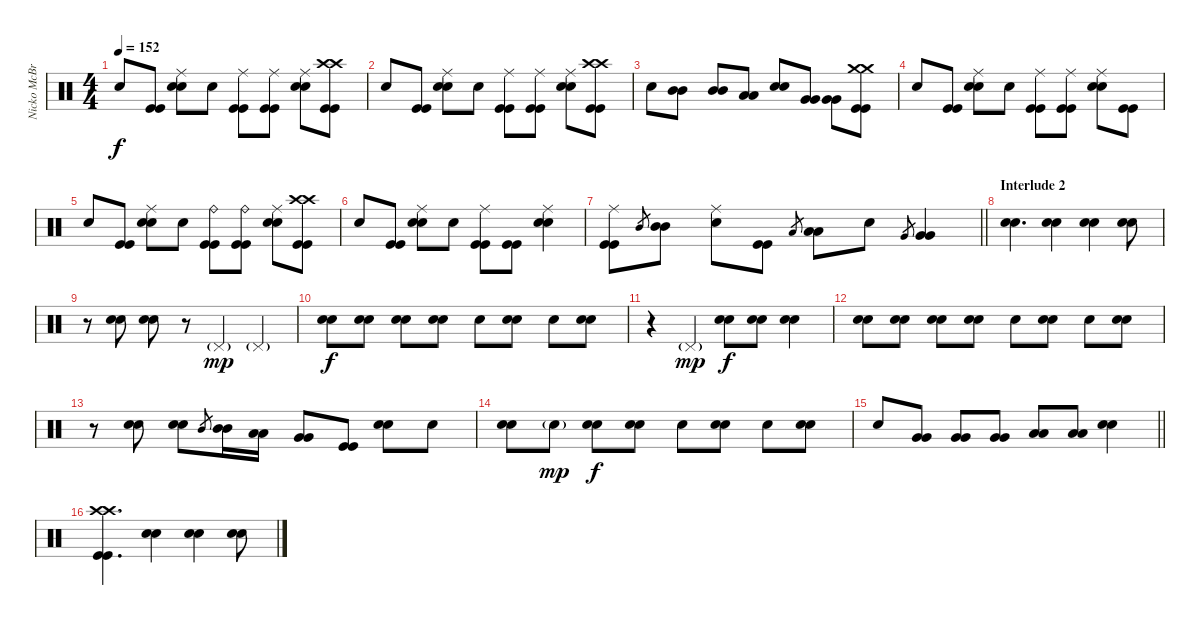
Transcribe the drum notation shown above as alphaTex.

\track ("Nicko McBrain" "Nicko McBr") {instrument percussion}
\staff {score}
\articulation defaults
\ts (4 4)
\tempo 152
\clef neutral
\ks c "Snare (hit)".8{dy f}
("Kick (hit)" "Kick (hit)").8 ("Ride (middle)" "Electric Snare (hit)" "Electric Snare (hit)").8 "Snare (hit)".8 ("Ride (middle)" "Kick (hit)" "Kick (hit)").8 ("Ride (middle)" "Kick (hit)" "Kick (hit)").8 ("Ride (middle)" "Electric Snare (hit)" "Electric Snare (hit)").8 ("Crash high (hit)" "Crash high (hit)" "Kick (hit)" "Kick (hit)").8 |
"Snare (hit)".8 ("Kick (hit)" "Kick (hit)").8 ("Ride (middle)" "Electric Snare (hit)" "Electric Snare (hit)").8 "Snare (hit)".8 ("Ride (middle)" "Kick (hit)" "Kick (hit)").8 ("Ride (middle)" "Kick (hit)" "Kick (hit)").8 ("Ride (middle)" "Electric Snare (hit)" "Electric Snare (hit)").8 ("Crash high (hit)" "Crash high (hit)" "Kick (hit)" "Kick (hit)").8 |
"Snare (hit)".8 ("Mid Tom (hit)" "Mid Tom (hit)").8 ("Mid Tom (hit)" "Mid Tom (hit)").8 ("Low Tom (hit)" "Low Tom (hit)").8 ("Electric Snare (hit)" "Electric Snare (hit)").8 ("Very Low Tom (hit)" "Very Low Tom (hit)").8 ("Very Low Tom (hit)" "Very Low Tom (hit)").8 ("Crash medium (hit)" "Crash medium (hit)" "Kick (hit)" "Kick (hit)").8 |
"Snare (hit)".8 ("Kick (hit)" "Kick (hit)").8 ("Ride (middle)" "Electric Snare (hit)" "Electric Snare (hit)").8 "Snare (hit)".8 ("Ride (middle)" "Kick (hit)" "Kick (hit)").8 ("Ride (middle)" "Kick (hit)" "Kick (hit)").8 ("Ride (middle)" "Electric Snare (hit)" "Electric Snare (hit)").8 ("Kick (hit)" "Kick (hit)").8 |
"Snare (hit)".8 ("Kick (hit)" "Kick (hit)").8 ("Ride (middle)" "Electric Snare (hit)" "Electric Snare (hit)").8 "Snare (hit)".8 ("Ride (bell)" "Kick (hit)" "Kick (hit)").8 ("Ride (bell)" "Kick (hit)" "Kick (hit)").8 ("Ride (middle)" "Electric Snare (hit)" "Electric Snare (hit)").8 ("Crash high (hit)" "Crash high (hit)" "Kick (hit)" "Kick (hit)").8 |
"Snare (hit)".8 ("Kick (hit)" "Kick (hit)").8 ("Ride (middle)" "Electric Snare (hit)" "Electric Snare (hit)").8 "Snare (hit)".8 ("Ride (middle)" "Kick (hit)" "Kick (hit)").8 ("Kick (hit)" "Kick (hit)").8 ("Ride (middle)" "Electric Snare (hit)" "Electric Snare (hit)").4 |
\barLineRight lightlight
("Ride (middle)" "Kick (hit)" "Kick (hit)").8 "Mid Tom (hit)".8{gr} ("Mid Tom (hit)" "Mid Tom (hit)").8 ("Ride (middle)" "Snare (hit)").8 ("Kick (hit)" "Kick (hit)").8 "Low Tom (hit)".8{gr} ("Low Tom (hit)" "Low Tom (hit)").8 "Snare (hit)".8 "Very Low Tom (hit)".8{gr} ("Very Low Tom (hit)" "Very Low Tom (hit)").4 |
\section ("" "Interlude 2")
("Electric Snare (hit)" "Electric Snare (hit)").4{d} ("Electric Snare (hit)" "Electric Snare (hit)").4 ("Electric Snare (hit)" "Electric Snare (hit)").4 ("Electric Snare (hit)" "Electric Snare (hit)").8 |
r.8 ("Electric Snare (hit)" "Electric Snare (hit)").8 ("Electric Snare (hit)" "Electric Snare (hit)").8 r.8 "Pedal Hi-Hat (hit)"{g}.4{dy mp} "Pedal Hi-Hat (hit)"{g}.4 |
("Electric Snare (hit)" "Electric Snare (hit)").8{dy f} ("Electric Snare (hit)" "Electric Snare (hit)").8 ("Electric Snare (hit)" "Electric Snare (hit)").8 ("Electric Snare (hit)" "Electric Snare (hit)").8 "Snare (hit)".8 ("Electric Snare (hit)" "Electric Snare (hit)").8 "Snare (hit)".8 ("Electric Snare (hit)" "Electric Snare (hit)").8 |
r.4 "Pedal Hi-Hat (hit)"{g}.4{dy mp} ("Electric Snare (hit)" "Electric Snare (hit)").8{dy f} ("Electric Snare (hit)" "Electric Snare (hit)").8 ("Electric Snare (hit)" "Electric Snare (hit)").4 |
("Electric Snare (hit)" "Electric Snare (hit)").8 ("Electric Snare (hit)" "Electric Snare (hit)").8 ("Electric Snare (hit)" "Electric Snare (hit)").8 ("Electric Snare (hit)" "Electric Snare (hit)").8 "Snare (hit)".8 ("Electric Snare (hit)" "Electric Snare (hit)").8 "Snare (hit)".8 ("Electric Snare (hit)" "Electric Snare (hit)").8 |
r.8 ("Electric Snare (hit)" "Electric Snare (hit)").8 ("Electric Snare (hit)" "Electric Snare (hit)").8 "Mid Tom (hit)".8{gr} ("Mid Tom (hit)" "Mid Tom (hit)").16 ("Low Tom (hit)" "Low Tom (hit)").16 ("Very Low Tom (hit)" "Very Low Tom (hit)").8 ("Kick (hit)" "Kick (hit)").8 ("Electric Snare (hit)" "Electric Snare (hit)").8 "Snare (hit)".8 |
("Electric Snare (hit)" "Electric Snare (hit)").8 "Electric Snare (hit)"{g}.8{dy mp} ("Electric Snare (hit)" "Electric Snare (hit)").8{dy f} ("Electric Snare (hit)" "Electric Snare (hit)").8 "Snare (hit)".8 ("Electric Snare (hit)" "Electric Snare (hit)").8 "Snare (hit)".8 ("Electric Snare (hit)" "Electric Snare (hit)").8 |
\barLineRight lightlight "Snare (hit)".8
("Very Low Tom (hit)" "Very Low Tom (hit)").8 ("Very Low Tom (hit)" "Very Low Tom (hit)").8 ("Very Low Tom (hit)" "Very Low Tom (hit)").8 ("Low Floor Tom (hit)" "Low Floor Tom (hit)").8 ("Low Floor Tom (hit)" "Low Floor Tom (hit)").8 ("Electric Snare (hit)" "Electric Snare (hit)").4 |
("Crash high (hit)" "Crash high (hit)" "Kick (hit)" "Kick (hit)").4{d} ("Electric Snare (hit)" "Electric Snare (hit)").4 ("Electric Snare (hit)" "Electric Snare (hit)").4 ("Electric Snare (hit)" "Electric Snare (hit)").8
